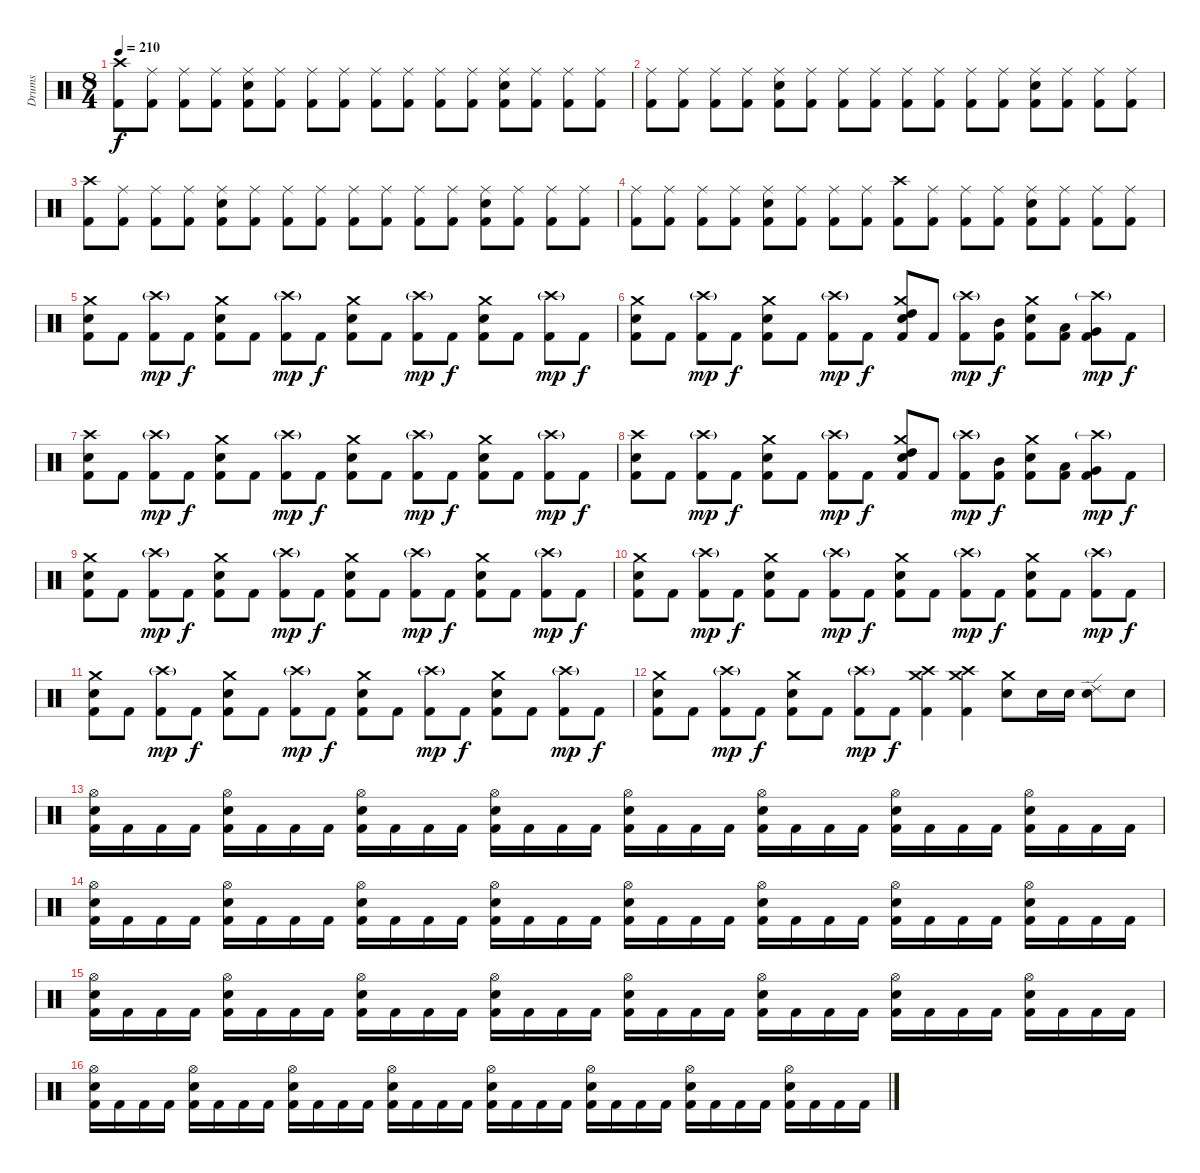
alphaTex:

\track ("Drums" "Drums") {instrument percussion}
\staff {score}
\articulation defaults
\ts (8 4)
\tempo 210
\clef neutral
\ks c
("Crash high (hit)" "Kick (hit) 2").8{dy f} ("Ride (middle)" "Kick (hit) 2").8 ("Ride (middle)" "Kick (hit) 2").8 ("Ride (middle)" "Kick (hit) 2").8 ("Ride (middle)" "Electric Snare (hit)" "Kick (hit) 2").8 ("Ride (middle)" "Kick (hit) 2").8 ("Ride (middle)" "Kick (hit) 2").8 ("Ride (middle)" "Kick (hit) 2").8 ("Ride (middle)" "Kick (hit) 2").8 ("Ride (middle)" "Kick (hit) 2").8 ("Ride (middle)" "Kick (hit) 2").8 ("Ride (middle)" "Kick (hit) 2").8 ("Ride (middle)" "Electric Snare (hit)" "Kick (hit) 2").8 ("Ride (middle)" "Kick (hit) 2").8 ("Ride (middle)" "Kick (hit) 2").8 ("Ride (middle)" "Kick (hit) 2").8 |
("Ride (middle)" "Kick (hit) 2").8 ("Ride (middle)" "Kick (hit) 2").8 ("Ride (middle)" "Kick (hit) 2").8 ("Ride (middle)" "Kick (hit) 2").8 ("Ride (middle)" "Electric Snare (hit)" "Kick (hit) 2").8 ("Ride (middle)" "Kick (hit) 2").8 ("Ride (middle)" "Kick (hit) 2").8 ("Ride (middle)" "Kick (hit) 2").8 ("Ride (middle)" "Kick (hit) 2").8 ("Ride (middle)" "Kick (hit) 2").8 ("Ride (middle)" "Kick (hit) 2").8 ("Ride (middle)" "Kick (hit) 2").8 ("Ride (middle)" "Electric Snare (hit)" "Kick (hit) 2").8 ("Ride (middle)" "Kick (hit) 2").8 ("Ride (middle)" "Kick (hit) 2").8 ("Ride (middle)" "Kick (hit) 2").8 |
("Crash high (hit)" "Kick (hit) 2").8 ("Ride (middle)" "Kick (hit) 2").8 ("Ride (middle)" "Kick (hit) 2").8 ("Ride (middle)" "Kick (hit) 2").8 ("Ride (middle)" "Electric Snare (hit)" "Kick (hit) 2").8 ("Ride (middle)" "Kick (hit) 2").8 ("Ride (middle)" "Kick (hit) 2").8 ("Ride (middle)" "Kick (hit) 2").8 ("Ride (middle)" "Kick (hit) 2").8 ("Ride (middle)" "Kick (hit) 2").8 ("Ride (middle)" "Kick (hit) 2").8 ("Ride (middle)" "Kick (hit) 2").8 ("Ride (middle)" "Electric Snare (hit)" "Kick (hit) 2").8 ("Ride (middle)" "Kick (hit) 2").8 ("Ride (middle)" "Kick (hit) 2").8 ("Ride (middle)" "Kick (hit) 2").8 |
("Ride (middle)" "Kick (hit) 2").8 ("Ride (middle)" "Kick (hit) 2").8 ("Ride (middle)" "Kick (hit) 2").8 ("Ride (middle)" "Kick (hit) 2").8 ("Ride (middle)" "Electric Snare (hit)" "Kick (hit) 2").8 ("Ride (middle)" "Kick (hit) 2").8 ("Ride (middle)" "Kick (hit) 2").8 ("Ride (middle)" "Kick (hit) 2").8 ("Crash high (hit)" "Kick (hit) 2").8 ("Ride (middle)" "Kick (hit) 2").8 ("Ride (middle)" "Kick (hit) 2").8 ("Ride (middle)" "Kick (hit) 2").8 ("Ride (middle)" "Electric Snare (hit)" "Kick (hit) 2").8 ("Ride (middle)" "Kick (hit) 2").8 ("Ride (middle)" "Kick (hit) 2").8 ("Ride (middle)" "Kick (hit) 2").8 |
("Crash medium (hit)" "Electric Snare (hit)" "Kick (hit) 2").8 "Kick (hit) 2".8 ("Crash high (hit)"{g} "Kick (hit) 2").8{dy mp} "Kick (hit) 2".8{dy f} ("Crash medium (hit)" "Electric Snare (hit)" "Kick (hit) 2").8 "Kick (hit) 2".8 ("Crash high (hit)"{g} "Kick (hit) 2").8{dy mp} "Kick (hit) 2".8{dy f} ("Crash medium (hit)" "Electric Snare (hit)" "Kick (hit) 2").8 "Kick (hit) 2".8 ("Crash high (hit)"{g} "Kick (hit) 2").8{dy mp} "Kick (hit) 2".8{dy f} ("Crash medium (hit)" "Electric Snare (hit)" "Kick (hit) 2").8 "Kick (hit) 2".8 ("Crash high (hit)"{g} "Kick (hit) 2").8{dy mp} "Kick (hit) 2".8{dy f} |
("Crash medium (hit)" "Electric Snare (hit)" "Kick (hit) 2").8 "Kick (hit) 2".8 ("Crash high (hit)"{g} "Kick (hit) 2").8{dy mp} "Kick (hit) 2".8{dy f} ("Crash medium (hit)" "Electric Snare (hit)" "Kick (hit) 2").8 "Kick (hit) 2".8 ("Crash high (hit)"{g} "Kick (hit) 2").8{dy mp} "Kick (hit) 2".8{dy f} ("Crash medium (hit)" "Electric Snare (hit)" "High Tom (hit)" "Kick (hit) 2").8 "Kick (hit) 2".8 ("Crash high (hit)"{g} "Kick (hit) 2").8{dy mp} ("Mid Tom (hit)" "Kick (hit) 2").8{dy f} ("Crash medium (hit)" "Electric Snare (hit)" "Kick (hit) 2").8 ("Low Tom (hit)" "Kick (hit) 2").8 ("Crash high (hit)"{g} "Very Low Tom (hit)" "Kick (hit) 2").8{dy mp} "Kick (hit) 2".8{dy f} |
("Crash high (hit)" "Electric Snare (hit)" "Kick (hit) 2").8 "Kick (hit) 2".8 ("Crash high (hit)"{g} "Kick (hit) 2").8{dy mp} "Kick (hit) 2".8{dy f} ("Crash medium (hit)" "Electric Snare (hit)" "Kick (hit) 2").8 "Kick (hit) 2".8 ("Crash high (hit)"{g} "Kick (hit) 2").8{dy mp} "Kick (hit) 2".8{dy f} ("Crash medium (hit)" "Electric Snare (hit)" "Kick (hit) 2").8 "Kick (hit) 2".8 ("Crash high (hit)"{g} "Kick (hit) 2").8{dy mp} "Kick (hit) 2".8{dy f} ("Crash medium (hit)" "Electric Snare (hit)" "Kick (hit) 2").8 "Kick (hit) 2".8 ("Crash high (hit)"{g} "Kick (hit) 2").8{dy mp} "Kick (hit) 2".8{dy f} |
("Crash high (hit)" "Electric Snare (hit)" "Kick (hit) 2").8 "Kick (hit) 2".8 ("Crash high (hit)"{g} "Kick (hit) 2").8{dy mp} "Kick (hit) 2".8{dy f} ("Crash medium (hit)" "Electric Snare (hit)" "Kick (hit) 2").8 "Kick (hit) 2".8 ("Crash high (hit)"{g} "Kick (hit) 2").8{dy mp} "Kick (hit) 2".8{dy f} ("Crash medium (hit)" "Electric Snare (hit)" "High Tom (hit)" "Kick (hit) 2").8 "Kick (hit) 2".8 ("Crash high (hit)"{g} "Kick (hit) 2").8{dy mp} ("Mid Tom (hit)" "Kick (hit) 2").8{dy f} ("Crash medium (hit)" "Electric Snare (hit)" "Kick (hit) 2").8 ("Low Tom (hit)" "Kick (hit) 2").8 ("Crash high (hit)"{g} "Very Low Tom (hit)" "Kick (hit) 2").8{dy mp} "Kick (hit) 2".8{dy f} |
("Crash medium (hit)" "Electric Snare (hit)" "Kick (hit) 2").8 "Kick (hit) 2".8 ("Crash high (hit)"{g} "Kick (hit) 2").8{dy mp} "Kick (hit) 2".8{dy f} ("Crash medium (hit)" "Electric Snare (hit)" "Kick (hit) 2").8 "Kick (hit) 2".8 ("Crash high (hit)"{g} "Kick (hit) 2").8{dy mp} "Kick (hit) 2".8{dy f} ("Crash medium (hit)" "Electric Snare (hit)" "Kick (hit) 2").8 "Kick (hit) 2".8 ("Crash high (hit)"{g} "Kick (hit) 2").8{dy mp} "Kick (hit) 2".8{dy f} ("Crash medium (hit)" "Electric Snare (hit)" "Kick (hit) 2").8 "Kick (hit) 2".8 ("Crash high (hit)"{g} "Kick (hit) 2").8{dy mp} "Kick (hit) 2".8{dy f} |
("Crash medium (hit)" "Electric Snare (hit)" "Kick (hit) 2").8 "Kick (hit) 2".8 ("Crash high (hit)"{g} "Kick (hit) 2").8{dy mp} "Kick (hit) 2".8{dy f} ("Crash medium (hit)" "Electric Snare (hit)" "Kick (hit) 2").8 "Kick (hit) 2".8 ("Crash high (hit)"{g} "Kick (hit) 2").8{dy mp} "Kick (hit) 2".8{dy f} ("Crash medium (hit)" "Electric Snare (hit)" "Kick (hit) 2").8 "Kick (hit) 2".8 ("Crash high (hit)"{g} "Kick (hit) 2").8{dy mp} "Kick (hit) 2".8{dy f} ("Crash medium (hit)" "Electric Snare (hit)" "Kick (hit) 2").8 "Kick (hit) 2".8 ("Crash high (hit)"{g} "Kick (hit) 2").8{dy mp} "Kick (hit) 2".8{dy f} |
("Crash medium (hit)" "Electric Snare (hit)" "Kick (hit) 2").8 "Kick (hit) 2".8 ("Crash high (hit)"{g} "Kick (hit) 2").8{dy mp} "Kick (hit) 2".8{dy f} ("Crash medium (hit)" "Electric Snare (hit)" "Kick (hit) 2").8 "Kick (hit) 2".8 ("Crash high (hit)"{g} "Kick (hit) 2").8{dy mp} "Kick (hit) 2".8{dy f} ("Crash medium (hit)" "Electric Snare (hit)" "Kick (hit) 2").8 "Kick (hit) 2".8 ("Crash high (hit)"{g} "Kick (hit) 2").8{dy mp} "Kick (hit) 2".8{dy f} ("Crash medium (hit)" "Electric Snare (hit)" "Kick (hit) 2").8 "Kick (hit) 2".8 ("Crash high (hit)"{g} "Kick (hit) 2").8{dy mp} "Kick (hit) 2".8{dy f} |
("Crash medium (hit)" "Electric Snare (hit)" "Kick (hit) 2").8 "Kick (hit) 2".8 ("Crash high (hit)"{g} "Kick (hit) 2").8{dy mp} "Kick (hit) 2".8{dy f} ("Crash medium (hit)" "Electric Snare (hit)" "Kick (hit) 2").8 "Kick (hit) 2".8 ("Crash high (hit)"{g} "Kick (hit) 2").8{dy mp} "Kick (hit) 2".8{dy f} ("Crash medium (hit)" "Crash high (hit)" "Kick (hit) 2").4 ("Crash medium (hit)" "Crash high (hit)" "Kick (hit) 2").4 ("Crash medium (hit)" "Electric Snare (hit)").8 "Electric Snare (hit)".16 "Electric Snare (hit)".16 ("Ride (edge) 2" "Electric Snare (hit)").8 "Electric Snare (hit)".8 |
("Hi-Hat (open)" "Electric Snare (hit)" "Kick (hit) 2").16 "Kick (hit) 2".16 "Kick (hit) 2".16 "Kick (hit) 2".16 ("Hi-Hat (open)" "Electric Snare (hit)" "Kick (hit) 2").16 "Kick (hit) 2".16 "Kick (hit) 2".16 "Kick (hit) 2".16 ("Hi-Hat (open)" "Electric Snare (hit)" "Kick (hit) 2").16 "Kick (hit) 2".16 "Kick (hit) 2".16 "Kick (hit) 2".16 ("Hi-Hat (open)" "Electric Snare (hit)" "Kick (hit) 2").16 "Kick (hit) 2".16 "Kick (hit) 2".16 "Kick (hit) 2".16 ("Hi-Hat (open)" "Electric Snare (hit)" "Kick (hit) 2").16 "Kick (hit) 2".16 "Kick (hit) 2".16 "Kick (hit) 2".16 ("Hi-Hat (open)" "Electric Snare (hit)" "Kick (hit) 2").16 "Kick (hit) 2".16 "Kick (hit) 2".16 "Kick (hit) 2".16 ("Hi-Hat (open)" "Electric Snare (hit)" "Kick (hit) 2").16 "Kick (hit) 2".16 "Kick (hit) 2".16 "Kick (hit) 2".16 ("Hi-Hat (open)" "Electric Snare (hit)" "Kick (hit) 2").16 "Kick (hit) 2".16 "Kick (hit) 2".16 "Kick (hit) 2".16 |
("Hi-Hat (open)" "Electric Snare (hit)" "Kick (hit) 2").16 "Kick (hit) 2".16 "Kick (hit) 2".16 "Kick (hit) 2".16 ("Hi-Hat (open)" "Electric Snare (hit)" "Kick (hit) 2").16 "Kick (hit) 2".16 "Kick (hit) 2".16 "Kick (hit) 2".16 ("Hi-Hat (open)" "Electric Snare (hit)" "Kick (hit) 2").16 "Kick (hit) 2".16 "Kick (hit) 2".16 "Kick (hit) 2".16 ("Hi-Hat (open)" "Electric Snare (hit)" "Kick (hit) 2").16 "Kick (hit) 2".16 "Kick (hit) 2".16 "Kick (hit) 2".16 ("Hi-Hat (open)" "Electric Snare (hit)" "Kick (hit) 2").16 "Kick (hit) 2".16 "Kick (hit) 2".16 "Kick (hit) 2".16 ("Hi-Hat (open)" "Electric Snare (hit)" "Kick (hit) 2").16 "Kick (hit) 2".16 "Kick (hit) 2".16 "Kick (hit) 2".16 ("Hi-Hat (open)" "Electric Snare (hit)" "Kick (hit) 2").16 "Kick (hit) 2".16 "Kick (hit) 2".16 "Kick (hit) 2".16 ("Hi-Hat (open)" "Electric Snare (hit)" "Kick (hit) 2").16 "Kick (hit) 2".16 "Kick (hit) 2".16 "Kick (hit) 2".16 |
("Hi-Hat (open)" "Electric Snare (hit)" "Kick (hit) 2").16 "Kick (hit) 2".16 "Kick (hit) 2".16 "Kick (hit) 2".16 ("Hi-Hat (open)" "Electric Snare (hit)" "Kick (hit) 2").16 "Kick (hit) 2".16 "Kick (hit) 2".16 "Kick (hit) 2".16 ("Hi-Hat (open)" "Electric Snare (hit)" "Kick (hit) 2").16 "Kick (hit) 2".16 "Kick (hit) 2".16 "Kick (hit) 2".16 ("Hi-Hat (open)" "Electric Snare (hit)" "Kick (hit) 2").16 "Kick (hit) 2".16 "Kick (hit) 2".16 "Kick (hit) 2".16 ("Hi-Hat (open)" "Electric Snare (hit)" "Kick (hit) 2").16 "Kick (hit) 2".16 "Kick (hit) 2".16 "Kick (hit) 2".16 ("Hi-Hat (open)" "Electric Snare (hit)" "Kick (hit) 2").16 "Kick (hit) 2".16 "Kick (hit) 2".16 "Kick (hit) 2".16 ("Hi-Hat (open)" "Electric Snare (hit)" "Kick (hit) 2").16 "Kick (hit) 2".16 "Kick (hit) 2".16 "Kick (hit) 2".16 ("Hi-Hat (open)" "Electric Snare (hit)" "Kick (hit) 2").16 "Kick (hit) 2".16 "Kick (hit) 2".16 "Kick (hit) 2".16 |
("Hi-Hat (open)" "Electric Snare (hit)" "Kick (hit) 2").16 "Kick (hit) 2".16 "Kick (hit) 2".16 "Kick (hit) 2".16 ("Hi-Hat (open)" "Electric Snare (hit)" "Kick (hit) 2").16 "Kick (hit) 2".16 "Kick (hit) 2".16 "Kick (hit) 2".16 ("Hi-Hat (open)" "Electric Snare (hit)" "Kick (hit) 2").16 "Kick (hit) 2".16 "Kick (hit) 2".16 "Kick (hit) 2".16 ("Hi-Hat (open)" "Electric Snare (hit)" "Kick (hit) 2").16 "Kick (hit) 2".16 "Kick (hit) 2".16 "Kick (hit) 2".16 ("Hi-Hat (open)" "Electric Snare (hit)" "Kick (hit) 2").16 "Kick (hit) 2".16 "Kick (hit) 2".16 "Kick (hit) 2".16 ("Hi-Hat (open)" "Electric Snare (hit)" "Kick (hit) 2").16 "Kick (hit) 2".16 "Kick (hit) 2".16 "Kick (hit) 2".16 ("Hi-Hat (open)" "Electric Snare (hit)" "Kick (hit) 2").16 "Kick (hit) 2".16 "Kick (hit) 2".16 "Kick (hit) 2".16 ("Hi-Hat (open)" "Electric Snare (hit)" "Kick (hit) 2").16 "Kick (hit) 2".16 "Kick (hit) 2".16 "Kick (hit) 2".16
